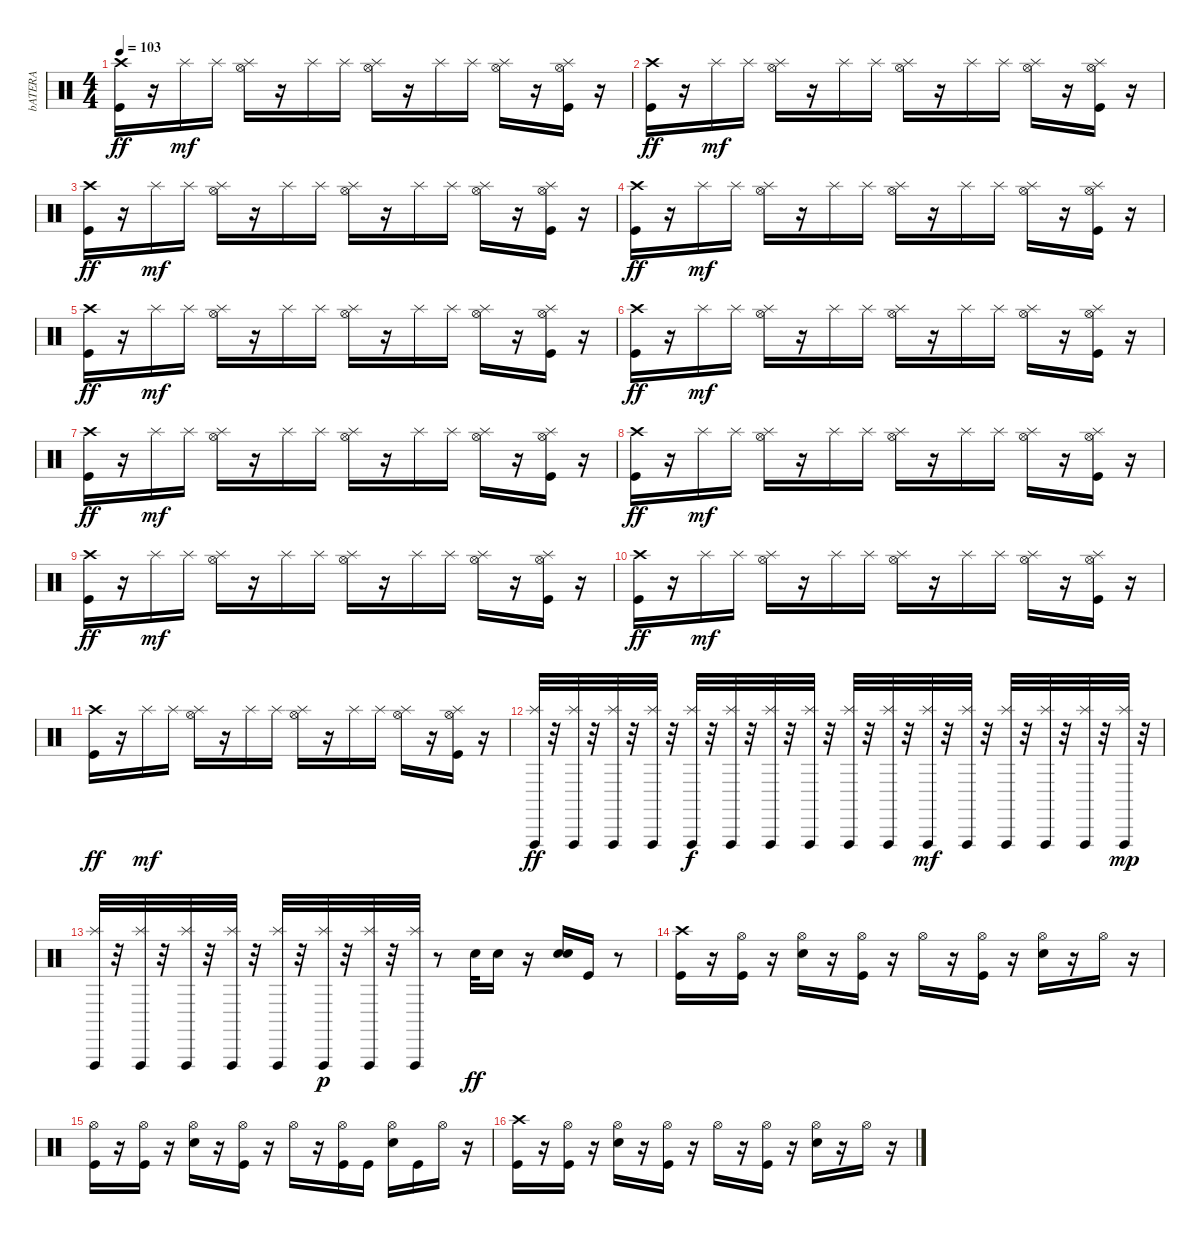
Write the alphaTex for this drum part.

\track ("bATERA" "bATERA") {instrument percussion}
\staff {score}
\articulation defaults
\ts (4 4)
\tempo 103
\clef neutral
\ks c
("Kick (hit)" "Crash high (hit)").16{dy ff} r.16 "Splash (hit)".16{dy mf} "Splash (hit)".16 ("Hi-Hat (open)" "Splash (hit)").16 r.16 "Splash (hit)".16 "Splash (hit)".16 ("Hi-Hat (open)" "Splash (hit)").16 r.16 "Splash (hit)".16 "Splash (hit)".16 ("Hi-Hat (open)" "Splash (hit)").16 r.16 ("Kick (hit)" "Hi-Hat (open)" "Splash (hit)").16 r.16 |
("Crash high (hit)" "Kick (hit)").16{dy ff} r.16 "Splash (hit)".16{dy mf} "Splash (hit)".16 ("Hi-Hat (open)" "Splash (hit)").16 r.16 "Splash (hit)".16 "Splash (hit)".16 ("Hi-Hat (open)" "Splash (hit)").16 r.16 "Splash (hit)".16 "Splash (hit)".16 ("Hi-Hat (open)" "Splash (hit)").16 r.16 ("Kick (hit)" "Hi-Hat (open)" "Splash (hit)").16 r.16 |
("Crash high (hit)" "Kick (hit)").16{dy ff} r.16 "Splash (hit)".16{dy mf} "Splash (hit)".16 ("Hi-Hat (open)" "Splash (hit)").16 r.16 "Splash (hit)".16 "Splash (hit)".16 ("Hi-Hat (open)" "Splash (hit)").16 r.16 "Splash (hit)".16 "Splash (hit)".16 ("Hi-Hat (open)" "Splash (hit)").16 r.16 ("Kick (hit)" "Hi-Hat (open)" "Splash (hit)").16 r.16 |
("Crash high (hit)" "Kick (hit)").16{dy ff} r.16 "Splash (hit)".16{dy mf} "Splash (hit)".16 ("Hi-Hat (open)" "Splash (hit)").16 r.16 "Splash (hit)".16 "Splash (hit)".16 ("Hi-Hat (open)" "Splash (hit)").16 r.16 "Splash (hit)".16 "Splash (hit)".16 ("Hi-Hat (open)" "Splash (hit)").16 r.16 ("Kick (hit)" "Hi-Hat (open)" "Splash (hit)").16 r.16 |
("Crash high (hit)" "Kick (hit)").16{dy ff} r.16 "Splash (hit)".16{dy mf} "Splash (hit)".16 ("Hi-Hat (open)" "Splash (hit)").16 r.16 "Splash (hit)".16 "Splash (hit)".16 ("Hi-Hat (open)" "Splash (hit)").16 r.16 "Splash (hit)".16 "Splash (hit)".16 ("Hi-Hat (open)" "Splash (hit)").16 r.16 ("Kick (hit)" "Hi-Hat (open)" "Splash (hit)").16 r.16 |
("Crash high (hit)" "Kick (hit)").16{dy ff} r.16 "Splash (hit)".16{dy mf} "Splash (hit)".16 ("Hi-Hat (open)" "Splash (hit)").16 r.16 "Splash (hit)".16 "Splash (hit)".16 ("Hi-Hat (open)" "Splash (hit)").16 r.16 "Splash (hit)".16 "Splash (hit)".16 ("Hi-Hat (open)" "Splash (hit)").16 r.16 ("Kick (hit)" "Hi-Hat (open)" "Splash (hit)").16 r.16 |
("Crash high (hit)" "Kick (hit)").16{dy ff} r.16 "Splash (hit)".16{dy mf} "Splash (hit)".16 ("Hi-Hat (open)" "Splash (hit)").16 r.16 "Splash (hit)".16 "Splash (hit)".16 ("Hi-Hat (open)" "Splash (hit)").16 r.16 "Splash (hit)".16 "Splash (hit)".16 ("Hi-Hat (open)" "Splash (hit)").16 r.16 ("Kick (hit)" "Hi-Hat (open)" "Splash (hit)").16 r.16 |
("Crash high (hit)" "Kick (hit)").16{dy ff} r.16 "Splash (hit)".16{dy mf} "Splash (hit)".16 ("Hi-Hat (open)" "Splash (hit)").16 r.16 "Splash (hit)".16 "Splash (hit)".16 ("Hi-Hat (open)" "Splash (hit)").16 r.16 "Splash (hit)".16 "Splash (hit)".16 ("Hi-Hat (open)" "Splash (hit)").16 r.16 ("Kick (hit)" "Hi-Hat (open)" "Splash (hit)").16 r.16 |
("Crash high (hit)" "Kick (hit)").16{dy ff} r.16 "Splash (hit)".16{dy mf} "Splash (hit)".16 ("Hi-Hat (open)" "Splash (hit)").16 r.16 "Splash (hit)".16 "Splash (hit)".16 ("Hi-Hat (open)" "Splash (hit)").16 r.16 "Splash (hit)".16 "Splash (hit)".16 ("Hi-Hat (open)" "Splash (hit)").16 r.16 ("Kick (hit)" "Hi-Hat (open)" "Splash (hit)").16 r.16 |
("Crash high (hit)" "Kick (hit)").16{dy ff} r.16 "Splash (hit)".16{dy mf} "Splash (hit)".16 ("Hi-Hat (open)" "Splash (hit)").16 r.16 "Splash (hit)".16 "Splash (hit)".16 ("Hi-Hat (open)" "Splash (hit)").16 r.16 "Splash (hit)".16 "Splash (hit)".16 ("Hi-Hat (open)" "Splash (hit)").16 r.16 ("Kick (hit)" "Hi-Hat (open)" "Splash (hit)").16 r.16 |
("Crash high (hit)" "Kick (hit)").16{dy ff} r.16 "Splash (hit)".16{dy mf} "Splash (hit)".16 ("Hi-Hat (open)" "Splash (hit)").16 r.16 "Splash (hit)".16 "Splash (hit)".16 ("Hi-Hat (open)" "Splash (hit)").16 r.16 "Splash (hit)".16 "Splash (hit)".16 ("Hi-Hat (open)" "Splash (hit)").16 r.16 ("Kick (hit)" "Hi-Hat (open)" "Splash (hit)").16 r.16 |
("Vibraslap (hit)" "Splash (hit)").32{dy ff} r.32 ("Vibraslap (hit)" "Splash (hit)").32 r.32 ("Vibraslap (hit)" "Splash (hit)").32 r.32 ("Vibraslap (hit)" "Splash (hit)").32 r.32 ("Vibraslap (hit)" "Splash (hit)").32{dy f} r.32 ("Vibraslap (hit)" "Splash (hit)").32 r.32 ("Vibraslap (hit)" "Splash (hit)").32 r.32 ("Vibraslap (hit)" "Splash (hit)").32 r.32 ("Vibraslap (hit)" "Splash (hit)").32 r.32 ("Vibraslap (hit)" "Splash (hit)").32 r.32 ("Vibraslap (hit)" "Splash (hit)").32{dy mf} r.32 ("Vibraslap (hit)" "Splash (hit)").32 r.32 ("Vibraslap (hit)" "Splash (hit)").32 r.32 ("Vibraslap (hit)" "Splash (hit)").32 r.32 ("Vibraslap (hit)" "Splash (hit)").32 r.32 ("Vibraslap (hit)" "Splash (hit)").32{dy mp} r.32 |
("Vibraslap (hit)" "Splash (hit)").32 r.32 ("Vibraslap (hit)" "Splash (hit)").32 r.32 ("Vibraslap (hit)" "Splash (hit)").32 r.32 ("Vibraslap (hit)" "Splash (hit)").32 r.32 ("Vibraslap (hit)" "Splash (hit)").32 r.32 ("Vibraslap (hit)" "Splash (hit)").32{dy p} r.32 ("Vibraslap (hit)" "Splash (hit)").32 r.32 ("Vibraslap (hit)" "Splash (hit)").32 r.8 "Snare (hit) 2".32{dy ff} "Snare (hit) 2".16 r.16 ("Snare (hit) 2" "Snare (hit) 2").16 "Kick (hit)".16 r.8 |
("Crash high (hit)" "Kick (hit)").16 r.16 ("Kick (hit)" "Hi-Hat (open)").16 r.16 ("Snare (hit) 2" "Hi-Hat (open)").16 r.16 ("Kick (hit)" "Hi-Hat (open)").16 r.16 "Hi-Hat (open)".16 r.16 ("Kick (hit)" "Hi-Hat (open)").16 r.16 ("Hi-Hat (open)" "Snare (hit) 2").16 r.16 "Hi-Hat (open)".16 r.16 |
("Kick (hit)" "Hi-Hat (open)").16 r.16 ("Kick (hit)" "Hi-Hat (open)").16 r.16 ("Snare (hit) 2" "Hi-Hat (open)").16 r.16 ("Kick (hit)" "Hi-Hat (open)").16 r.16 "Hi-Hat (open)".16 r.16 ("Kick (hit)" "Hi-Hat (open)").16 "Kick (hit)".16 ("Hi-Hat (open)" "Snare (hit) 2").16 "Kick (hit)".16 "Hi-Hat (open)".16 r.16 |
("Kick (hit)" "Crash high (hit)").16 r.16 ("Kick (hit)" "Hi-Hat (open)").16 r.16 ("Snare (hit) 2" "Hi-Hat (open)").16 r.16 ("Kick (hit)" "Hi-Hat (open)").16 r.16 "Hi-Hat (open)".16 r.16 ("Kick (hit)" "Hi-Hat (open)").16 r.16 ("Hi-Hat (open)" "Snare (hit) 2").16 r.16 "Hi-Hat (open)".16 r.16
